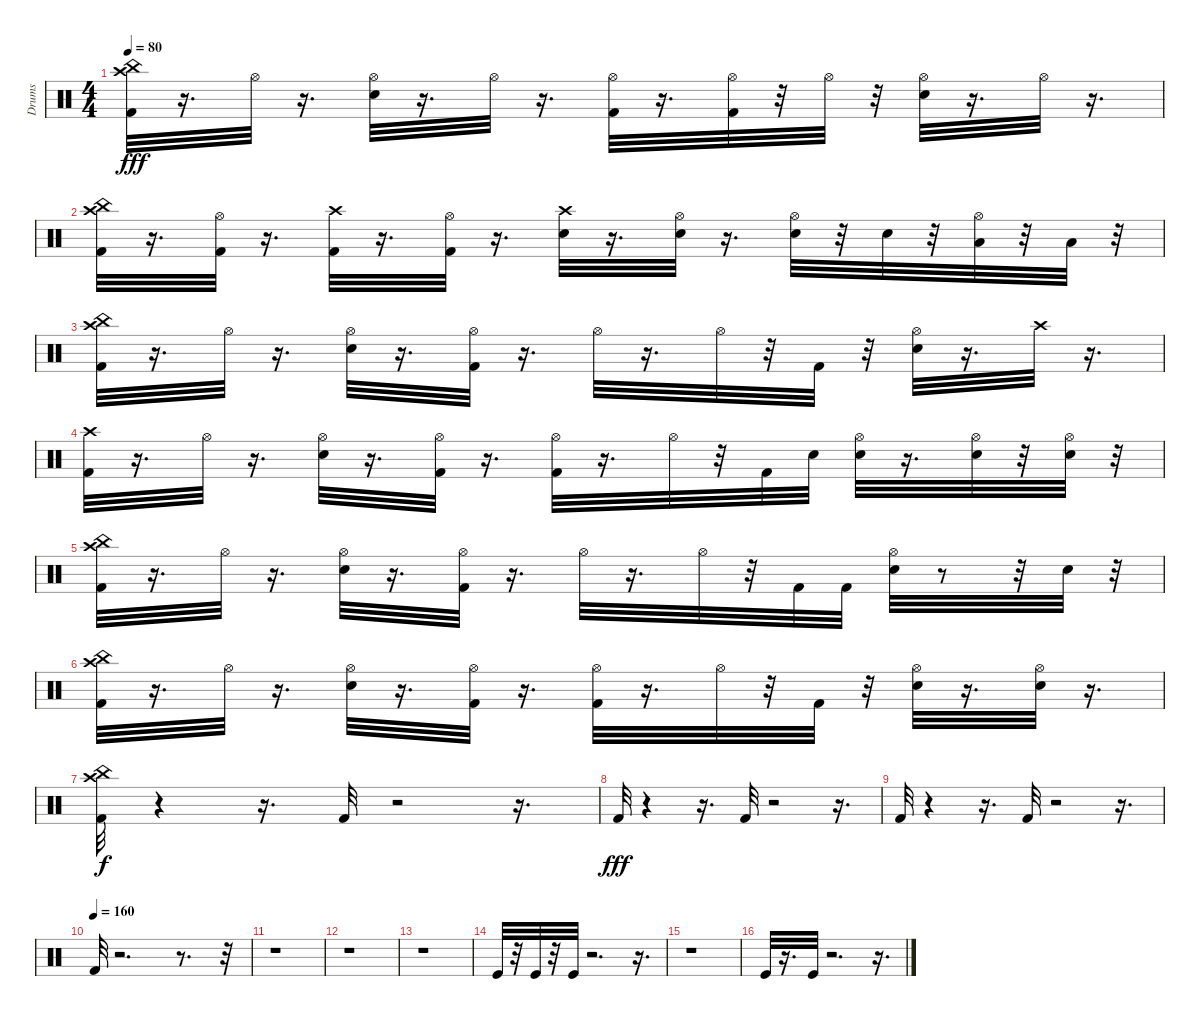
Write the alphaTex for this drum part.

\track ("Drums" "Drums") {instrument percussion}
\staff {score}
\articulation defaults
\ts (4 4)
\tempo 80
\clef neutral
\ks c
("Kick (hit) 2" "China (hit)" "Crash high (hit)").32{dy fff} r.16{d} "Hi-Hat (open)".32 r.16{d} ("Hi-Hat (open)" "Snare (hit) 2").32 r.16{d} "Hi-Hat (open)".32 r.16{d} ("Hi-Hat (open)" "Kick (hit) 2").32 r.16{d} ("Hi-Hat (open)" "Kick (hit) 2").32 r.32 "Hi-Hat (open)".32 r.32 ("Hi-Hat (open)" "Snare (hit) 2").32 r.16{d} "Hi-Hat (open)".32 r.16{d} |
("China (hit)" "Crash high (hit)" "Kick (hit) 2").32 r.16{d} ("Hi-Hat (open)" "Kick (hit) 2").32 r.16{d} ("Crash high (hit)" "Kick (hit) 2").32 r.16{d} ("Hi-Hat (open)" "Kick (hit) 2").32 r.16{d} ("Crash high (hit)" "Snare (hit) 2").32 r.16{d} ("Hi-Hat (open)" "Snare (hit) 2").32 r.16{d} ("Hi-Hat (open)" "Snare (hit) 2").32 r.32 "Snare (hit) 2".32 r.32 ("Hi-Hat (open)" "Low Tom (hit)").32 r.32 "Low Tom (hit)".32 r.32 |
("Kick (hit) 2" "China (hit)" "Crash high (hit)").32 r.16{d} "Hi-Hat (open)".32 r.16{d} ("Hi-Hat (open)" "Snare (hit) 2").32 r.16{d} ("Hi-Hat (open)" "Kick (hit) 2").32 r.16{d} "Hi-Hat (open)".32 r.16{d} "Hi-Hat (open)".32 r.32 "Kick (hit) 2".32 r.32 ("Hi-Hat (open)" "Snare (hit) 2").32 r.16{d} "Crash high (hit)".32 r.16{d} |
("Kick (hit) 2" "Crash high (hit)").32 r.16{d} "Hi-Hat (open)".32 r.16{d} ("Snare (hit) 2" "Hi-Hat (open)").32 r.16{d} ("Kick (hit) 2" "Hi-Hat (open)").32 r.16{d} ("Kick (hit) 2" "Hi-Hat (open)").32 r.16{d} "Hi-Hat (open)".32 r.32 "Kick (hit) 2".32 "Snare (hit) 2".32 ("Snare (hit) 2" "Hi-Hat (open)").32 r.16{d} ("Snare (hit) 2" "Hi-Hat (open)").32 r.32 ("Snare (hit) 2" "Hi-Hat (open)").32 r.32 |
("China (hit)" "Crash high (hit)" "Kick (hit) 2").32 r.16{d} "Hi-Hat (open)".32 r.16{d} ("Hi-Hat (open)" "Snare (hit) 2").32 r.16{d} ("Hi-Hat (open)" "Kick (hit) 2").32 r.16{d} "Hi-Hat (open)".32 r.16{d} "Hi-Hat (open)".32 r.32 "Kick (hit) 2".32 "Kick (hit) 2".32 ("Hi-Hat (open)" "Snare (hit) 2").32 r.8 r.32 "Snare (hit) 2".32 r.32 |
("China (hit)" "Crash high (hit)" "Kick (hit) 2").32 r.16{d} "Hi-Hat (open)".32 r.16{d} ("Hi-Hat (open)" "Snare (hit) 2").32 r.16{d} ("Hi-Hat (open)" "Kick (hit) 2").32 r.16{d} ("Hi-Hat (open)" "Kick (hit) 2").32 r.16{d} "Hi-Hat (open)".32 r.32 "Kick (hit) 2".32 r.32 ("Hi-Hat (open)" "Snare (hit) 2").32 r.16{d} ("Hi-Hat (open)" "Snare (hit) 2").32 r.16{d} |
("China (hit)" "Crash high (hit)" "Kick (hit) 2").32{dy f} r.4 r.16{d} "Kick (hit) 2".32 r.2 r.16{d} |
"Kick (hit) 2".32{dy fff} r.4 r.16{d} "Kick (hit) 2".32 r.2 r.16{d} |
"Kick (hit) 2".32 r.4 r.16{d} "Kick (hit) 2".32 r.2 r.16{d} |
\tempo (160)
"Kick (hit) 2".32{volume 14 balance 15} r.2{d} r.8{d} r.32 |
r.1 |
r.1 |
r.1 |
"Kick (hit)".32 r.32 "Kick (hit)".32 r.32 "Kick (hit)".32 r.2{d} r.16{d} |
r.1 |
"Kick (hit)".32 r.16{d} "Kick (hit)".32 r.2{d} r.16{d}
